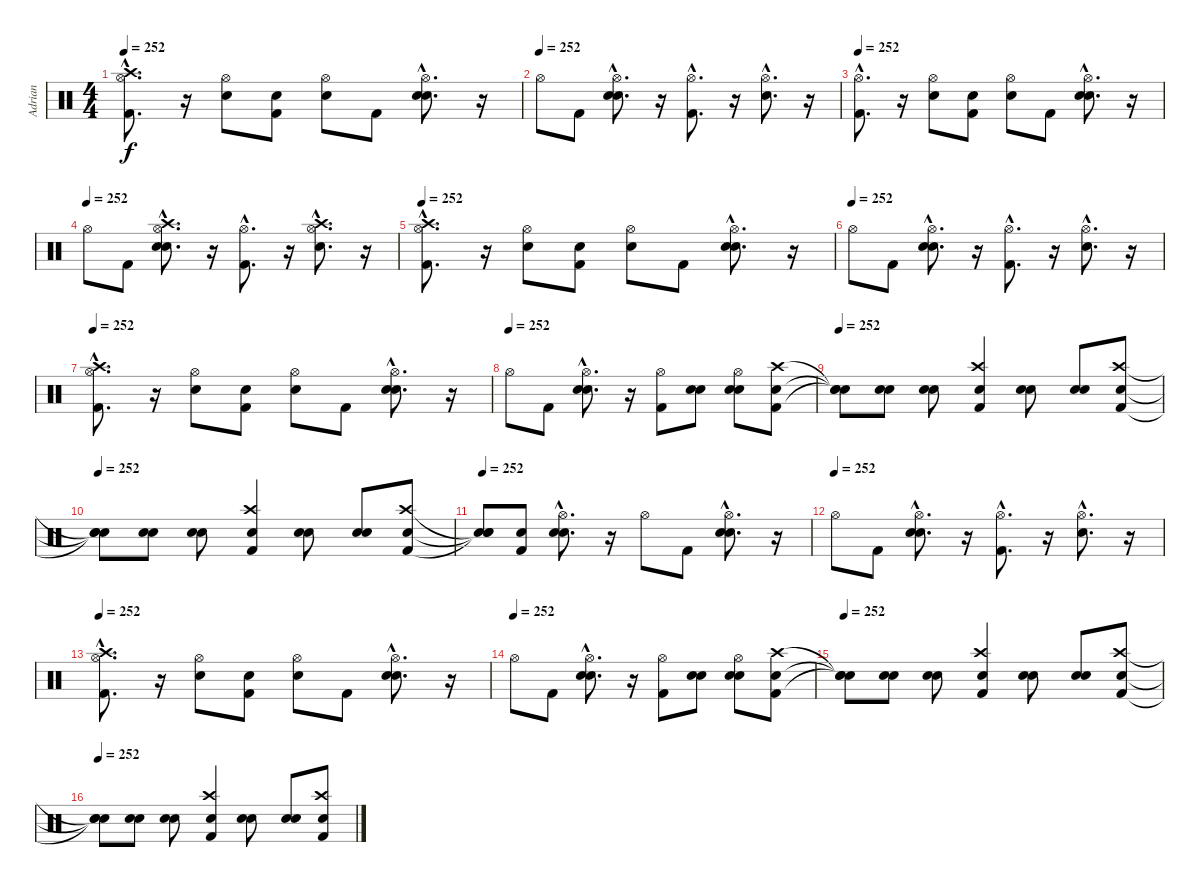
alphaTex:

\track ("Adrian" "Adrian") {instrument percussion}
\staff {score}
\articulation defaults
\ts (4 4)
\tempo 252
\clef neutral
\ks c
("Kick (hit) 2"{hac} "Hi-Hat (open)"{hac} "Crash high (hit)"{hac}).8{d dy f} r.16 ("Snare (hit) 2" "Hi-Hat (open)").8 ("Snare (hit)" "Kick (hit) 2").8 ("Snare (hit)" "Hi-Hat (open)").8 "Kick (hit) 2".8 ("Snare (hit)"{hac} "Snare (hit) 2"{hac} "Hi-Hat (open)"{hac}).8{d} r.16 |
\tempo (252)
"Hi-Hat (open)".8 "Kick (hit) 2".8 ("Snare (hit)"{hac} "Snare (hit) 2"{hac} "Hi-Hat (open)"{hac}).8{d} r.16 ("Kick (hit) 2"{hac} "Hi-Hat (open)"{hac}).8{d} r.16 ("Snare (hit) 2"{hac} "Hi-Hat (open)"{hac}).8{d} r.16 |
\tempo 252
("Kick (hit) 2"{hac} "Hi-Hat (open)"{hac}).8{d} r.16 ("Snare (hit) 2" "Hi-Hat (open)").8 ("Snare (hit)" "Kick (hit) 2").8 ("Snare (hit)" "Hi-Hat (open)").8 "Kick (hit) 2".8 ("Snare (hit)"{hac} "Snare (hit) 2"{hac} "Hi-Hat (open)"{hac}).8{d} r.16 |
\tempo (252)
"Hi-Hat (open)".8 "Kick (hit) 2".8 ("Snare (hit)"{hac} "Snare (hit) 2"{hac} "Hi-Hat (open)"{hac} "Crash high (hit)"{hac}).8{d} r.16 ("Kick (hit) 2"{hac} "Hi-Hat (open)"{hac}).8{d} r.16 ("Snare (hit) 2"{hac} "Hi-Hat (open)"{hac} "Crash high (hit)"{hac}).8{d} r.16 |
\tempo 252
("Kick (hit) 2"{hac} "Hi-Hat (open)"{hac} "Crash high (hit)"{hac}).8{d} r.16 ("Snare (hit) 2" "Hi-Hat (open)").8 ("Snare (hit)" "Kick (hit) 2").8 ("Snare (hit)" "Hi-Hat (open)").8 "Kick (hit) 2".8 ("Snare (hit)"{hac} "Snare (hit) 2"{hac} "Hi-Hat (open)"{hac}).8{d} r.16 |
\tempo (252)
"Hi-Hat (open)".8 "Kick (hit) 2".8 ("Snare (hit)"{hac} "Snare (hit) 2"{hac} "Hi-Hat (open)"{hac}).8{d} r.16 ("Kick (hit) 2"{hac} "Hi-Hat (open)"{hac}).8{d} r.16 ("Snare (hit) 2"{hac} "Hi-Hat (open)"{hac}).8{d} r.16 |
\tempo 252
("Kick (hit) 2"{hac} "Hi-Hat (open)"{hac} "Crash high (hit)"{hac}).8{d} r.16 ("Snare (hit) 2" "Hi-Hat (open)").8 ("Snare (hit)" "Kick (hit) 2").8 ("Snare (hit)" "Hi-Hat (open)").8 "Kick (hit) 2".8 ("Snare (hit)"{hac} "Snare (hit) 2"{hac} "Hi-Hat (open)"{hac}).8{d} r.16 |
\tempo (252)
"Hi-Hat (open)".8 "Kick (hit) 2".8 ("Snare (hit)"{hac} "Snare (hit) 2"{hac} "Hi-Hat (open)"{hac}).8{d} r.16 ("Kick (hit) 2" "Hi-Hat (open)").8 ("Snare (hit)" "Snare (hit) 2").8 ("Snare (hit)" "Snare (hit) 2" "Hi-Hat (open)").8 ("Snare (hit)" "Kick (hit) 2" "Crash high (hit)").8 |
\tempo 252
("Snare (hit)"{t} "Snare (hit)"{t} "Snare (hit)"{t}).8 ("Snare (hit)" "Snare (hit) 2").8 ("Snare (hit)" "Snare (hit) 2").8 ("Snare (hit)" "Kick (hit) 2" "Crash high (hit)").4 ("Snare (hit)" "Snare (hit) 2").8 ("Snare (hit)" "Snare (hit) 2").8 ("Snare (hit)" "Kick (hit) 2" "Crash high (hit)").8 |
\tempo 252
("Snare (hit)"{t} "Snare (hit)"{t} "Snare (hit)"{t}).8 ("Snare (hit)" "Snare (hit) 2").8 ("Snare (hit)" "Snare (hit) 2").8 ("Snare (hit)" "Kick (hit) 2" "Crash high (hit)").4 ("Snare (hit)" "Snare (hit) 2").8 ("Snare (hit)" "Snare (hit) 2").8 ("Snare (hit)" "Kick (hit) 2" "Crash high (hit)").8 |
\tempo 252
("Snare (hit)"{t} "Snare (hit)"{t} "Snare (hit)"{t}).8 ("Snare (hit)" "Kick (hit) 2").8 ("Snare (hit)"{hac} "Snare (hit) 2"{hac} "Hi-Hat (open)"{hac}).8{d} r.16 "Hi-Hat (open)".8 "Kick (hit) 2".8 ("Snare (hit)"{hac} "Snare (hit) 2"{hac} "Hi-Hat (open)"{hac}).8{d} r.16 |
\tempo (252)
"Hi-Hat (open)".8 "Kick (hit) 2".8 ("Snare (hit)"{hac} "Snare (hit) 2"{hac} "Hi-Hat (open)"{hac}).8{d} r.16 ("Kick (hit) 2"{hac} "Hi-Hat (open)"{hac}).8{d} r.16 ("Snare (hit) 2"{hac} "Hi-Hat (open)"{hac}).8{d} r.16 |
\tempo 252
("Kick (hit) 2"{hac} "Hi-Hat (open)"{hac} "Crash high (hit)"{hac}).8{d} r.16 ("Snare (hit) 2" "Hi-Hat (open)").8 ("Snare (hit)" "Kick (hit) 2").8 ("Snare (hit)" "Hi-Hat (open)").8 "Kick (hit) 2".8 ("Snare (hit)"{hac} "Snare (hit) 2"{hac} "Hi-Hat (open)"{hac}).8{d} r.16 |
\tempo (252)
"Hi-Hat (open)".8 "Kick (hit) 2".8 ("Snare (hit)"{hac} "Snare (hit) 2"{hac} "Hi-Hat (open)"{hac}).8{d} r.16 ("Kick (hit) 2" "Hi-Hat (open)").8 ("Snare (hit)" "Snare (hit) 2").8 ("Snare (hit)" "Snare (hit) 2" "Hi-Hat (open)").8 ("Snare (hit)" "Kick (hit) 2" "Crash high (hit)").8 |
\tempo 252
("Snare (hit)"{t} "Snare (hit)"{t} "Snare (hit)"{t}).8 ("Snare (hit)" "Snare (hit) 2").8 ("Snare (hit)" "Snare (hit) 2").8 ("Snare (hit)" "Kick (hit) 2" "Crash high (hit)").4 ("Snare (hit)" "Snare (hit) 2").8 ("Snare (hit)" "Snare (hit) 2").8 ("Snare (hit)" "Kick (hit) 2" "Crash high (hit)").8 |
\tempo 252
("Snare (hit)"{t} "Snare (hit)"{t} "Snare (hit)"{t}).8 ("Snare (hit)" "Snare (hit) 2").8 ("Snare (hit)" "Snare (hit) 2").8 ("Snare (hit)" "Kick (hit) 2" "Crash high (hit)").4 ("Snare (hit)" "Snare (hit) 2").8 ("Snare (hit)" "Snare (hit) 2").8 ("Snare (hit)" "Kick (hit) 2" "Crash high (hit)").8
